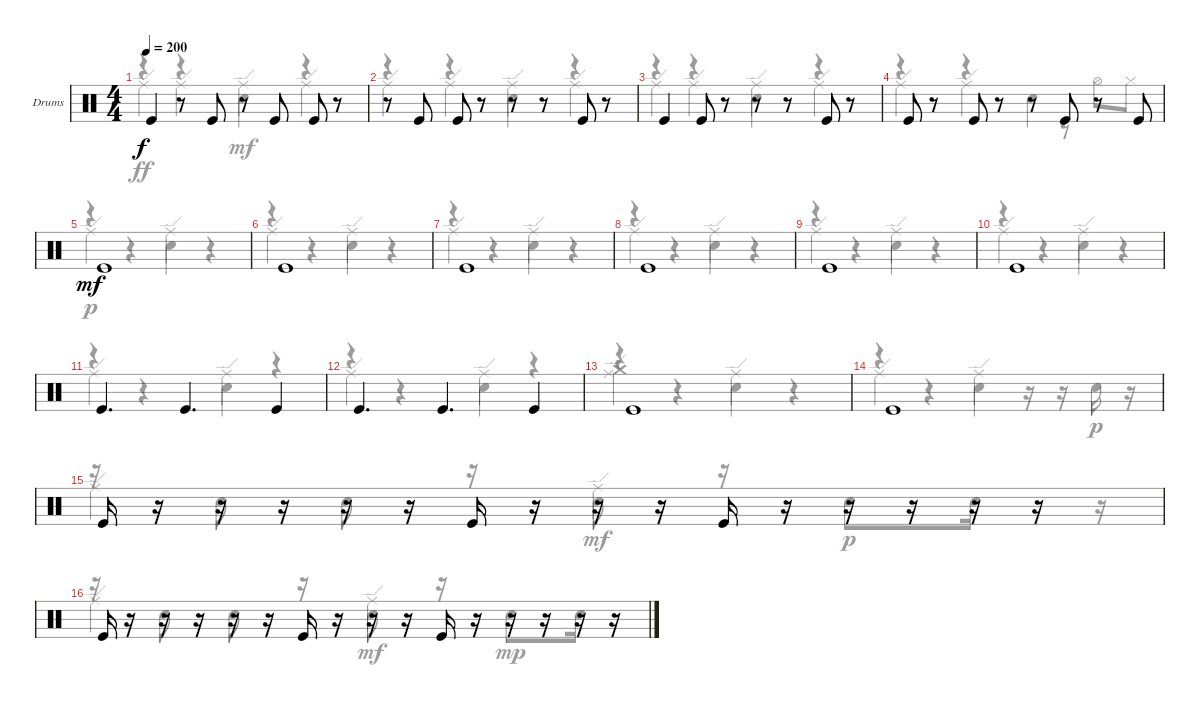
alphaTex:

\defaultSystemsLayout 4
\bracketExtendMode groupsimilarinstruments
\firstSystemTrackNameOrientation horizontal
\otherSystemsTrackNameOrientation horizontal
\track ("Drum" "Drums") {instrument percussion}
\staff {score}
\articulation defaults
\voice
\ts (4 4)
\tempo 200
\clef neutral
\ks c "Kick (hit)".4{dy f}
r.8 "Kick (hit)".8 r.8 "Kick (hit)".8 "Kick (hit)".8 r.8 |
r.8 "Kick (hit)".8 "Kick (hit)".8 r.8 r.8 r.8 "Kick (hit)".8 r.8 |
"Kick (hit)".4 "Kick (hit)".8 r.8 r.8 r.8 "Kick (hit)".8 r.8 |
"Kick (hit)".8 r.8 "Kick (hit)".8 r.8 r.8 "Kick (hit)".8 r.8 "Kick (hit)".8 |
"Kick (hit)".1{dy mf} |
"Kick (hit)".1 |
"Kick (hit)".1 |
"Kick (hit)".1 |
"Kick (hit)".1 |
"Kick (hit)".1 |
"Kick (hit)".4{d} "Kick (hit)".4{d} "Kick (hit)".4 |
"Kick (hit)".4{d} "Kick (hit)".4{d} "Kick (hit)".4 |
"Kick (hit)".1 |
"Kick (hit)".1 |
"Kick (hit)".16 r.16 r.16 r.16 r.16 r.16 "Kick (hit)".16 r.16 r.16 r.16 "Kick (hit)".16 r.16 r.16 r.16 r.16 r.16 |
"Kick (hit)".16 r.16 r.16 r.16 r.16 r.16 "Kick (hit)".16 r.16 r.16 r.16 "Kick (hit)".16 r.16 r.16 r.16 r.16 r.16
\voice
\clef neutral
\ottava regular
\simile none
\ks c
r.4{dy mf} r.4 "Snare (hit) 2".4 r.4 |
r.4 r.4 "Snare (hit) 2".4 r.4 |
r.4 r.4 "Snare (hit) 2".4 r.4 |
r.4 r.4 "Snare (hit) 2".4 |
r.4 r.4 "Snare (hit) 2".4 r.4 |
r.4 r.4 "Snare (hit) 2".4 r.4 |
r.4 r.4 "Snare (hit) 2".4 r.4 |
r.4 r.4 "Snare (hit) 2".4 r.4 |
r.4 r.4 "Snare (hit) 2".4 r.4 |
r.4 r.4 "Snare (hit) 2".4 r.4 |
r.4 r.4 "Snare (hit) 2".4 r.4 |
r.4 r.4 "Snare (hit) 2".4 r.4 |
r.4 r.4 "Snare (hit) 2".4 r.4 |
r.4 r.4 "Snare (hit) 2".4 r.16 r.16 "Snare (hit) 2".16{dy p} r.16 |
r.16 r.16 "Snare (hit) 2".8 "Snare (hit) 2".8 r.16 r.16 "Snare (hit) 2".8{dy mf} r.16 r.16 "Snare (hit) 2".8{dy p} "Snare (hit) 2".16 r.16 r.16 |
r.16 r.16 "Snare (hit) 2".8 "Snare (hit) 2".8 r.16 r.16 "Snare (hit) 2".8{dy mf} r.16 r.16 "Snare (hit) 2".8{dy mp} "Snare (hit) 2".16 r.16
\voice
\clef neutral
\ottava regular
\simile none
\ks c "Ride (edge)".4{dy ff} "Ride (edge)".4 "Ride (edge)".4 "Ride (edge)".4
|
"Ride (edge)".4 "Ride (edge)".4 "Ride (edge)".4 "Ride (edge)".4 |
"Ride (edge)".4 "Ride (edge)".4 "Ride (edge)".4 "Ride (edge)".4 |
"Ride (edge)".4 "Ride (edge)".4 r.8 r.8 "Hi-Hat (open)".8 "Hi-Hat (closed)".8 |
"Ride (edge)".2{dy p} "Ride (edge)".2 |
"Ride (edge)".2 "Ride (edge)".2 |
"Ride (edge)".2 "Ride (edge)".2 |
"Ride (edge)".2 "Ride (edge)".2 |
"Ride (edge)".2 "Ride (edge)".2 |
"Ride (edge)".2 "Ride (edge)".2 |
"Ride (edge)".2 "Ride (edge)".2 |
"Ride (edge)".2 "Ride (edge)".2 |
("Ride (edge)" "Crash medium (hit)").2 "Ride (edge)".2 |
"Ride (edge)".2 "Ride (edge)".2 |
"Ride (edge)".2 "Ride (edge)".2 |
"Ride (edge)".2 "Ride (edge)".2
